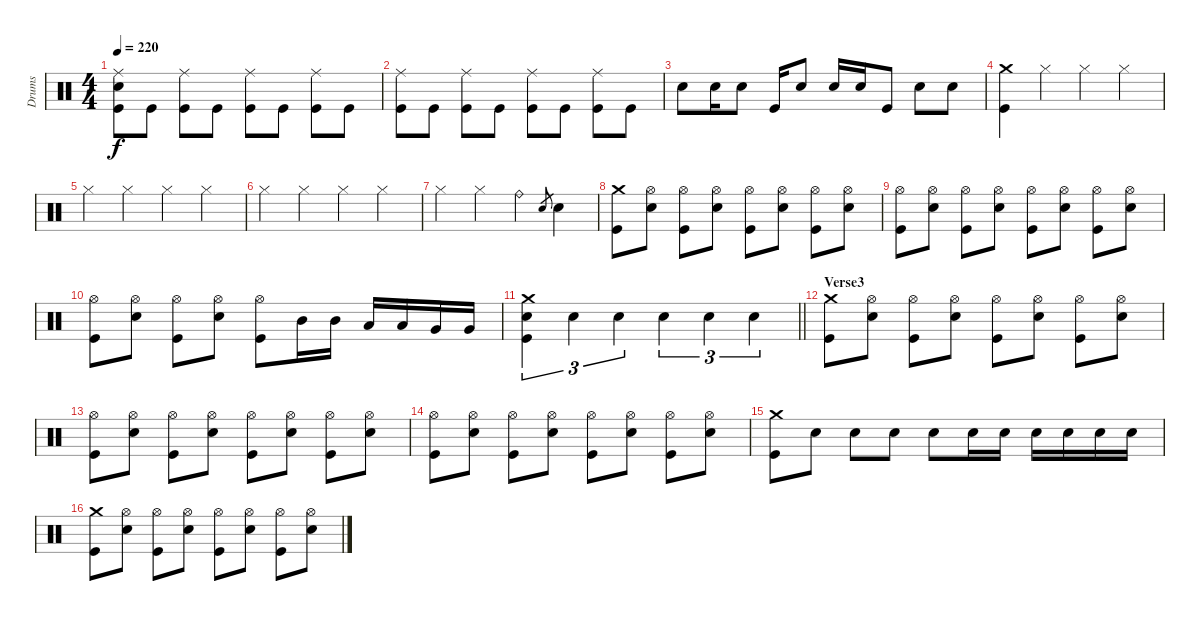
\track ("Drums" "Drums") {instrument percussion}
\staff {score}
\articulation defaults
\ts (4 4)
\tempo 220
\clef neutral
\ks c
("Ride (middle)" "Snare (hit) 2" "Kick (hit)").8{dy f} "Kick (hit)".8 ("Ride (middle)" "Kick (hit)").8 "Kick (hit)".8 ("Ride (middle)" "Kick (hit)").8 "Kick (hit)".8 ("Ride (middle)" "Kick (hit)").8 "Kick (hit)".8 |
("Ride (middle)" "Kick (hit)").8 "Kick (hit)".8 ("Ride (middle)" "Kick (hit)").8 "Kick (hit)".8 ("Ride (middle)" "Kick (hit)").8 "Kick (hit)".8 ("Ride (middle)" "Kick (hit)").8 "Kick (hit)".8 |
"Snare (hit) 2".8 "Snare (hit) 2".16 "Snare (hit) 2".8 "Kick (hit)".16 "Snare (hit) 2".8 "Snare (hit) 2".16 "Snare (hit) 2".16 "Kick (hit)".8 "Snare (hit) 2".8 "Snare (hit) 2".8 |
("Crash medium (hit)" "Kick (hit)").4 "Hi-Hat (closed)".4 "Hi-Hat (closed)".4 "Hi-Hat (closed)".4 |
"Hi-Hat (closed)".4 "Hi-Hat (closed)".4 "Hi-Hat (closed)".4 "Hi-Hat (closed)".4 |
"Hi-Hat (closed)".4 "Hi-Hat (closed)".4 "Hi-Hat (closed)".4 "Hi-Hat (closed)".4 |
"Hi-Hat (closed)".4 "Hi-Hat (closed)".4 "Ride (bell)".4 "Snare (hit) 2".8{gr} "Snare (hit) 2".4 |
("Crash medium (hit)" "Kick (hit)").8 ("Hi-Hat (open)" "Snare (hit) 2").8 ("Hi-Hat (open)" "Kick (hit)").8 ("Hi-Hat (open)" "Snare (hit) 2").8 ("Hi-Hat (open)" "Kick (hit)").8 ("Hi-Hat (open)" "Snare (hit) 2").8 ("Hi-Hat (open)" "Kick (hit)").8 ("Hi-Hat (open)" "Snare (hit) 2").8 |
("Hi-Hat (open)" "Kick (hit)").8 ("Hi-Hat (open)" "Snare (hit) 2").8 ("Hi-Hat (open)" "Kick (hit)").8 ("Hi-Hat (open)" "Snare (hit) 2").8 ("Hi-Hat (open)" "Kick (hit)").8 ("Hi-Hat (open)" "Snare (hit) 2").8 ("Hi-Hat (open)" "Kick (hit)").8 ("Hi-Hat (open)" "Snare (hit) 2").8 |
("Hi-Hat (open)" "Kick (hit)").8 ("Hi-Hat (open)" "Snare (hit) 2").8 ("Hi-Hat (open)" "Kick (hit)").8 ("Hi-Hat (open)" "Snare (hit) 2").8 ("Hi-Hat (open)" "Kick (hit)").8 "Mid Tom (hit)".16 "Mid Tom (hit)".16 "Low Tom (hit)".16 "Low Tom (hit)".16 "Very Low Tom (hit)".16 "Very Low Tom (hit)".16 |
\barLineRight lightlight
("Crash medium (hit)" "Snare (hit) 2" "Kick (hit)").4{tu (3 2)} "Snare (hit) 2".4{tu (3 2)} "Snare (hit) 2".4{tu (3 2)} "Snare (hit) 2".4{tu (3 2)} "Snare (hit) 2".4{tu (3 2)} "Snare (hit) 2".4{tu (3 2)} |
\section ("" "Verse3")
("Crash medium (hit)" "Kick (hit)").8 ("Hi-Hat (open)" "Snare (hit) 2").8 ("Hi-Hat (open)" "Kick (hit)").8 ("Hi-Hat (open)" "Snare (hit) 2").8 ("Hi-Hat (open)" "Kick (hit)").8 ("Hi-Hat (open)" "Snare (hit) 2").8 ("Hi-Hat (open)" "Kick (hit)").8 ("Hi-Hat (open)" "Snare (hit) 2").8 |
("Hi-Hat (open)" "Kick (hit)").8 ("Hi-Hat (open)" "Snare (hit) 2").8 ("Hi-Hat (open)" "Kick (hit)").8 ("Hi-Hat (open)" "Snare (hit) 2").8 ("Hi-Hat (open)" "Kick (hit)").8 ("Hi-Hat (open)" "Snare (hit) 2").8 ("Hi-Hat (open)" "Kick (hit)").8 ("Hi-Hat (open)" "Snare (hit) 2").8 |
("Hi-Hat (open)" "Kick (hit)").8 ("Hi-Hat (open)" "Snare (hit) 2").8 ("Hi-Hat (open)" "Kick (hit)").8 ("Hi-Hat (open)" "Snare (hit) 2").8 ("Hi-Hat (open)" "Kick (hit)").8 ("Hi-Hat (open)" "Snare (hit) 2").8 ("Hi-Hat (open)" "Kick (hit)").8 ("Hi-Hat (open)" "Snare (hit) 2").8 |
("Crash medium (hit)" "Kick (hit)").8 "Snare (hit) 2".8 "Snare (hit) 2".8 "Snare (hit) 2".8 "Snare (hit) 2".8 "Snare (hit) 2".16 "Snare (hit) 2".16 "Snare (hit) 2".16 "Snare (hit) 2".16 "Snare (hit) 2".16 "Snare (hit) 2".16 |
("Crash medium (hit)" "Kick (hit)").8 ("Hi-Hat (open)" "Snare (hit) 2").8 ("Hi-Hat (open)" "Kick (hit)").8 ("Hi-Hat (open)" "Snare (hit) 2").8 ("Hi-Hat (open)" "Kick (hit)").8 ("Hi-Hat (open)" "Snare (hit) 2").8 ("Hi-Hat (open)" "Kick (hit)").8 ("Hi-Hat (open)" "Snare (hit) 2").8
